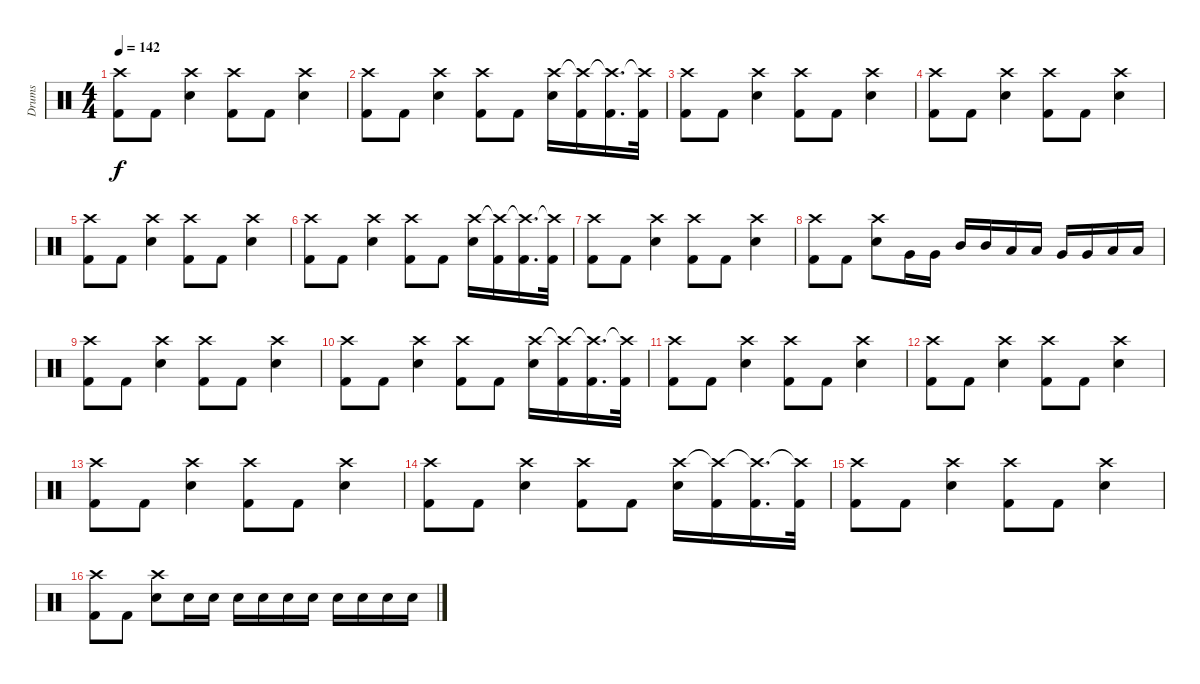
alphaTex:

\track ("Drums" "Drums") {instrument percussion}
\staff {score}
\articulation defaults
\ts (4 4)
\tempo 142
\clef neutral
\ks c
("Crash high (hit)" "Kick (hit) 2").8{dy f} "Kick (hit) 2".8 ("Crash high (hit)" "Snare (hit) 2").4 ("Crash high (hit)" "Kick (hit) 2").8 "Kick (hit) 2".8 ("Crash high (hit)" "Snare (hit) 2").4 |
("Crash high (hit)" "Kick (hit) 2").8 "Kick (hit) 2".8 ("Crash high (hit)" "Snare (hit) 2").4 ("Crash high (hit)" "Kick (hit) 2").8 "Kick (hit) 2".8 ("Crash high (hit)" "Snare (hit) 2").16 ("Crash high (hit)"{t} "Kick (hit) 2").16 ("Crash high (hit)"{t} "Kick (hit) 2").16{d} ("Crash high (hit)"{t} "Kick (hit) 2").32 |
("Crash high (hit)" "Kick (hit) 2").8 "Kick (hit) 2".8 ("Crash high (hit)" "Snare (hit) 2").4 ("Crash high (hit)" "Kick (hit) 2").8 "Kick (hit) 2".8 ("Crash high (hit)" "Snare (hit) 2").4 |
("Crash high (hit)" "Kick (hit) 2").8 "Kick (hit) 2".8 ("Crash high (hit)" "Snare (hit) 2").4 ("Crash high (hit)" "Kick (hit) 2").8 "Kick (hit) 2".8 ("Crash high (hit)" "Snare (hit) 2").4 |
("Crash high (hit)" "Kick (hit) 2").8 "Kick (hit) 2".8 ("Crash high (hit)" "Snare (hit) 2").4 ("Crash high (hit)" "Kick (hit) 2").8 "Kick (hit) 2".8 ("Crash high (hit)" "Snare (hit) 2").4 |
("Crash high (hit)" "Kick (hit) 2").8 "Kick (hit) 2".8 ("Crash high (hit)" "Snare (hit) 2").4 ("Crash high (hit)" "Kick (hit) 2").8 "Kick (hit) 2".8 ("Crash high (hit)" "Snare (hit) 2").16 ("Crash high (hit)"{t} "Kick (hit) 2").16 ("Crash high (hit)"{t} "Kick (hit) 2").16{d} ("Crash high (hit)"{t} "Kick (hit) 2").32 |
("Crash high (hit)" "Kick (hit) 2").8 "Kick (hit) 2".8 ("Crash high (hit)" "Snare (hit) 2").4 ("Crash high (hit)" "Kick (hit) 2").8 "Kick (hit) 2".8 ("Crash high (hit)" "Snare (hit) 2").4 |
("Crash high (hit)" "Kick (hit) 2").8 "Kick (hit) 2".8 ("Crash high (hit)" "Snare (hit) 2").8 "Very Low Tom (hit)".16 "Very Low Tom (hit)".16 "Mid Tom (hit)".16 "Mid Tom (hit)".16 "Low Tom (hit)".16 "Low Tom (hit)".16 "Very Low Tom (hit)".16 "Very Low Tom (hit)".16 "Low Floor Tom (hit)".16 "Low Floor Tom (hit)".16 |
("Crash high (hit)" "Kick (hit) 2").8 "Kick (hit) 2".8 ("Crash high (hit)" "Snare (hit) 2").4 ("Crash high (hit)" "Kick (hit) 2").8 "Kick (hit) 2".8 ("Crash high (hit)" "Snare (hit) 2").4 |
("Crash high (hit)" "Kick (hit) 2").8 "Kick (hit) 2".8 ("Crash high (hit)" "Snare (hit) 2").4 ("Crash high (hit)" "Kick (hit) 2").8 "Kick (hit) 2".8 ("Crash high (hit)" "Snare (hit) 2").16 ("Crash high (hit)"{t} "Kick (hit) 2").16 ("Crash high (hit)"{t} "Kick (hit) 2").16{d} ("Crash high (hit)"{t} "Kick (hit) 2").32 |
("Crash high (hit)" "Kick (hit) 2").8 "Kick (hit) 2".8 ("Crash high (hit)" "Snare (hit) 2").4 ("Crash high (hit)" "Kick (hit) 2").8 "Kick (hit) 2".8 ("Crash high (hit)" "Snare (hit) 2").4 |
("Crash high (hit)" "Kick (hit) 2").8 "Kick (hit) 2".8 ("Crash high (hit)" "Snare (hit) 2").4 ("Crash high (hit)" "Kick (hit) 2").8 "Kick (hit) 2".8 ("Crash high (hit)" "Snare (hit) 2").4 |
("Crash high (hit)" "Kick (hit) 2").8 "Kick (hit) 2".8 ("Crash high (hit)" "Snare (hit) 2").4 ("Crash high (hit)" "Kick (hit) 2").8 "Kick (hit) 2".8 ("Crash high (hit)" "Snare (hit) 2").4 |
("Crash high (hit)" "Kick (hit) 2").8 "Kick (hit) 2".8 ("Crash high (hit)" "Snare (hit) 2").4 ("Crash high (hit)" "Kick (hit) 2").8 "Kick (hit) 2".8 ("Crash high (hit)" "Snare (hit) 2").16 ("Crash high (hit)"{t} "Kick (hit) 2").16 ("Crash high (hit)"{t} "Kick (hit) 2").16{d} ("Crash high (hit)"{t} "Kick (hit) 2").32 |
("Crash high (hit)" "Kick (hit) 2").8 "Kick (hit) 2".8 ("Crash high (hit)" "Snare (hit) 2").4 ("Crash high (hit)" "Kick (hit) 2").8 "Kick (hit) 2".8 ("Crash high (hit)" "Snare (hit) 2").4 |
("Crash high (hit)" "Kick (hit) 2").8 "Kick (hit) 2".8 ("Crash high (hit)" "Snare (hit) 2").8 "Snare (hit) 2".16 "Snare (hit) 2".16 "Snare (hit) 2".16 "Snare (hit) 2".16 "Snare (hit) 2".16 "Snare (hit) 2".16 "Snare (hit) 2".16 "Snare (hit) 2".16 "Snare (hit) 2".16 "Snare (hit) 2".16
